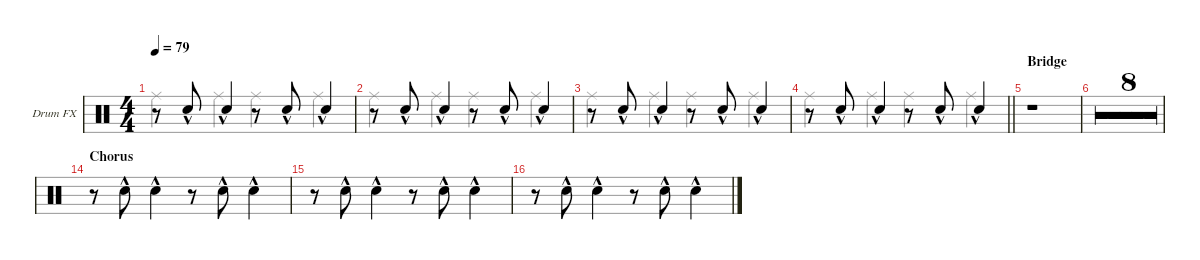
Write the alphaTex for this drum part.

\defaultSystemsLayout 4
\hideDynamics
\bracketExtendMode groupsimilarinstruments
\firstSystemTrackNameOrientation horizontal
\otherSystemsTrackNameOrientation horizontal
\track ("Drumkit FX" "Drum FX") {multiBarRest instrument percussion}
\staff {score}
\articulation defaults
\voice
\ts (4 4)
\tempo 79
\clef neutral
\ks c
r.8{dy fff} "Snare (hit) 2"{hac}.8{dy mf} "Snare (hit) 2"{hac}.4{dy fff} r.8 "Snare (hit) 2"{hac}.8{dy mf} "Snare (hit) 2"{hac}.4{dy fff} |
r.8 "Snare (hit) 2"{hac}.8{dy mf} "Snare (hit) 2"{hac}.4{dy fff} r.8 "Snare (hit) 2"{hac}.8{dy mf} "Snare (hit) 2"{hac}.4{dy fff} |
r.8 "Snare (hit) 2"{hac}.8{dy mf} "Snare (hit) 2"{hac}.4{dy fff} r.8 "Snare (hit) 2"{hac}.8{dy mf} "Snare (hit) 2"{hac}.4{dy fff} |
\barLineRight lightlight
r.8 "Snare (hit) 2"{hac}.8{dy mf} "Snare (hit) 2"{hac}.4{dy fff} r.8 "Snare (hit) 2"{hac}.8{dy mf} "Snare (hit) 2"{hac}.4{dy fff} |
\section ("" "Bridge")
r.1 |
r.1 |
r.1 |
r.1 |
r.1 |
r.1 |
r.1 |
\barLineRight lightlight
r.1 |
r.1 |
\section ("" "Chorus")
r.8 "Snare (hit) 2"{hac}.8{dy mf} "Snare (hit) 2"{hac}.4{dy fff} r.8 "Snare (hit) 2"{hac}.8{dy mf} "Snare (hit) 2"{hac}.4{dy fff} |
r.8 "Snare (hit) 2"{hac}.8{dy mf} "Snare (hit) 2"{hac}.4{dy fff} r.8 "Snare (hit) 2"{hac}.8{dy mf} "Snare (hit) 2"{hac}.4{dy fff} |
r.8 "Snare (hit) 2"{hac}.8{dy mf} "Snare (hit) 2"{hac}.4{dy fff} r.8 "Snare (hit) 2"{hac}.8{dy mf} "Snare (hit) 2"{hac}.4{dy fff}
\voice
\clef neutral
\ottava regular
\simile none
\ks c "Ride (middle)".4{dy p} "Ride (middle)".4 "Ride (middle)".4 "Ride (middle)".4
|
"Ride (middle)".4 "Ride (middle)".4 "Ride (middle)".4 "Ride (middle)".4 |
"Ride (middle)".4 "Ride (middle)".4 "Ride (middle)".4 "Ride (middle)".4 |
\barLineRight lightlight "Ride (middle)".4 "Ride (middle)".4 "Ride (middle)".4 "Ride (middle)".4
|
|
|
|
|
|
|
|
\barLineRight lightlight
|
|
|
|
